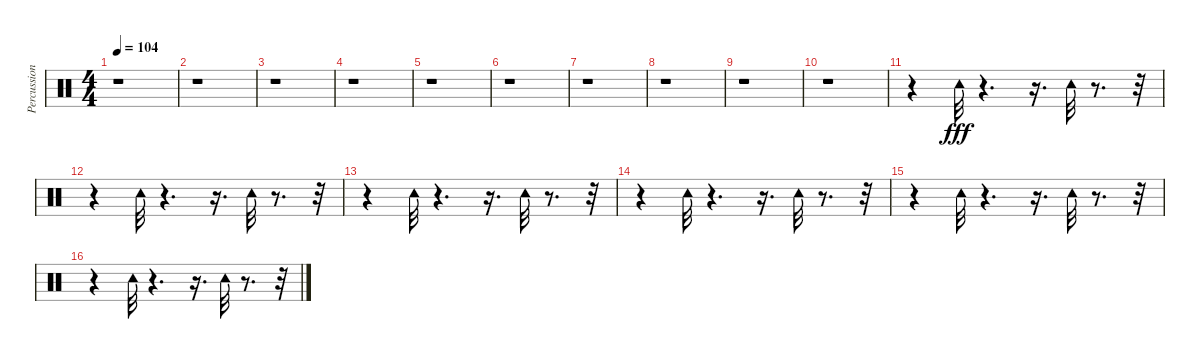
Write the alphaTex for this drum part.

\track ("Percussion" "Percussion") {instrument percussion}
\staff {score}
\articulation defaults
\ts (4 4)
\tempo 104
\clef neutral
\ks c
r.1{dy fff} |
r.1 |
r.1 |
r.1 |
r.1 |
r.1 |
r.1 |
r.1 |
r.1 |
r.1 |
r.4 "Tambourine (hit)".32 r.4{d} r.16{d} "Tambourine (hit)".32 r.8{d} r.32 |
r.4 "Tambourine (hit)".32 r.4{d} r.16{d} "Tambourine (hit)".32 r.8{d} r.32 |
r.4 "Tambourine (hit)".32 r.4{d} r.16{d} "Tambourine (hit)".32 r.8{d} r.32 |
r.4 "Tambourine (hit)".32 r.4{d} r.16{d} "Tambourine (hit)".32 r.8{d} r.32 |
r.4 "Tambourine (hit)".32 r.4{d} r.16{d} "Tambourine (hit)".32 r.8{d} r.32 |
r.4 "Tambourine (hit)".32 r.4{d} r.16{d} "Tambourine (hit)".32 r.8{d} r.32
